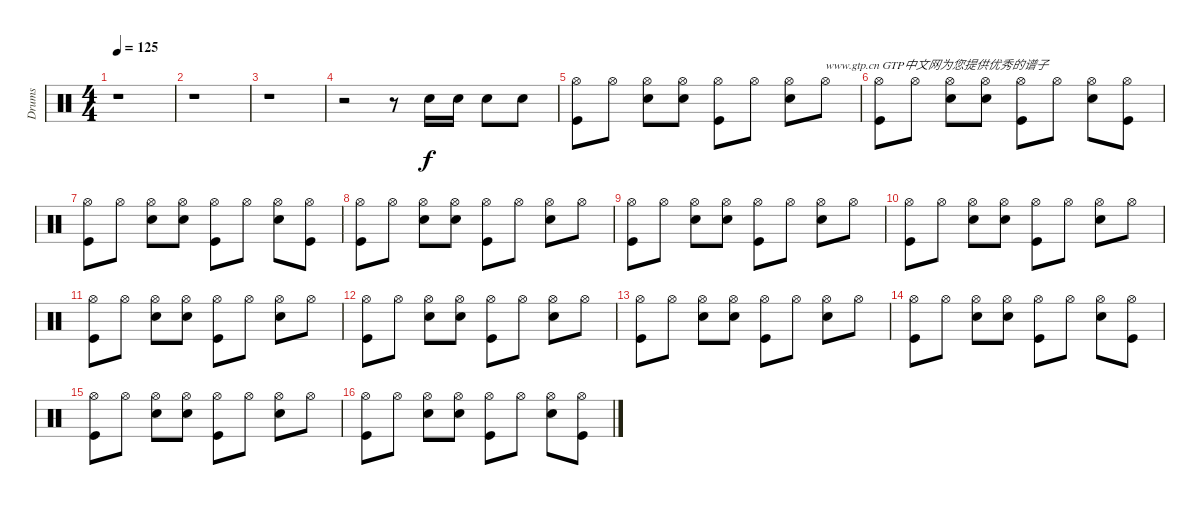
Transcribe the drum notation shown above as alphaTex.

\track ("Drums" "Drums") {instrument percussion}
\staff {score}
\articulation defaults
\ts (4 4)
\tempo 125
\clef neutral
\ks c
r.1{dy f} |
r.1 |
r.1 |
r.2 r.8 "Snare (hit) 2".16 "Snare (hit) 2".16 "Snare (hit) 2".8 "Snare (hit) 2".8 |
("Hi-Hat (open)" "Kick (hit)").8 "Hi-Hat (open)".8 ("Hi-Hat (open)" "Snare (hit) 2").8 ("Hi-Hat (open)" "Snare (hit) 2").8 ("Hi-Hat (open)" "Kick (hit)").8 "Hi-Hat (open)".8 ("Hi-Hat (open)" "Snare (hit) 2").8 "Hi-Hat (open)".8{txt "www.gtp.cn GTP中文网为您提供优秀的谱子"} |
("Kick (hit)" "Hi-Hat (open)").8 "Hi-Hat (open)".8 ("Hi-Hat (open)" "Snare (hit) 2").8 ("Hi-Hat (open)" "Snare (hit) 2").8 ("Hi-Hat (open)" "Kick (hit)").8 "Hi-Hat (open)".8 ("Hi-Hat (open)" "Snare (hit) 2").8 ("Hi-Hat (open)" "Kick (hit)").8 |
("Hi-Hat (open)" "Kick (hit)").8 "Hi-Hat (open)".8 ("Hi-Hat (open)" "Snare (hit) 2").8 ("Hi-Hat (open)" "Snare (hit) 2").8 ("Hi-Hat (open)" "Kick (hit)").8 "Hi-Hat (open)".8 ("Hi-Hat (open)" "Snare (hit) 2").8 ("Hi-Hat (open)" "Kick (hit)").8 |
("Kick (hit)" "Hi-Hat (open)").8 "Hi-Hat (open)".8 ("Hi-Hat (open)" "Snare (hit) 2").8 ("Hi-Hat (open)" "Snare (hit) 2").8 ("Hi-Hat (open)" "Kick (hit)").8 "Hi-Hat (open)".8 ("Hi-Hat (open)" "Snare (hit) 2").8 "Hi-Hat (open)".8 |
("Kick (hit)" "Hi-Hat (open)").8 "Hi-Hat (open)".8 ("Hi-Hat (open)" "Snare (hit) 2").8 ("Hi-Hat (open)" "Snare (hit) 2").8 ("Hi-Hat (open)" "Kick (hit)").8 "Hi-Hat (open)".8 ("Hi-Hat (open)" "Snare (hit) 2").8 "Hi-Hat (open)".8 |
("Kick (hit)" "Hi-Hat (open)").8 "Hi-Hat (open)".8 ("Hi-Hat (open)" "Snare (hit) 2").8 ("Hi-Hat (open)" "Snare (hit) 2").8 ("Hi-Hat (open)" "Kick (hit)").8 "Hi-Hat (open)".8 ("Hi-Hat (open)" "Snare (hit) 2").8 "Hi-Hat (open)".8 |
("Kick (hit)" "Hi-Hat (open)").8 "Hi-Hat (open)".8 ("Hi-Hat (open)" "Snare (hit) 2").8 ("Hi-Hat (open)" "Snare (hit) 2").8 ("Hi-Hat (open)" "Kick (hit)").8 "Hi-Hat (open)".8 ("Hi-Hat (open)" "Snare (hit) 2").8 "Hi-Hat (open)".8 |
("Hi-Hat (open)" "Kick (hit)").8 "Hi-Hat (open)".8 ("Hi-Hat (open)" "Snare (hit) 2").8 ("Hi-Hat (open)" "Snare (hit) 2").8 ("Hi-Hat (open)" "Kick (hit)").8 "Hi-Hat (open)".8 ("Hi-Hat (open)" "Snare (hit) 2").8 "Hi-Hat (open)".8 |
("Kick (hit)" "Hi-Hat (open)").8 "Hi-Hat (open)".8 ("Hi-Hat (open)" "Snare (hit) 2").8 ("Hi-Hat (open)" "Snare (hit) 2").8 ("Hi-Hat (open)" "Kick (hit)").8 "Hi-Hat (open)".8 ("Hi-Hat (open)" "Snare (hit) 2").8 "Hi-Hat (open)".8 |
("Kick (hit)" "Hi-Hat (open)").8 "Hi-Hat (open)".8 ("Hi-Hat (open)" "Snare (hit) 2").8 ("Hi-Hat (open)" "Snare (hit) 2").8 ("Hi-Hat (open)" "Kick (hit)").8 "Hi-Hat (open)".8 ("Hi-Hat (open)" "Snare (hit) 2").8 ("Hi-Hat (open)" "Kick (hit)").8 |
("Kick (hit)" "Hi-Hat (open)").8 "Hi-Hat (open)".8 ("Hi-Hat (open)" "Snare (hit) 2").8 ("Hi-Hat (open)" "Snare (hit) 2").8 ("Hi-Hat (open)" "Kick (hit)").8 "Hi-Hat (open)".8 ("Hi-Hat (open)" "Snare (hit) 2").8 "Hi-Hat (open)".8 |
("Kick (hit)" "Hi-Hat (open)").8 "Hi-Hat (open)".8 ("Hi-Hat (open)" "Snare (hit) 2").8 ("Hi-Hat (open)" "Snare (hit) 2").8 ("Hi-Hat (open)" "Kick (hit)").8 "Hi-Hat (open)".8 ("Hi-Hat (open)" "Snare (hit) 2").8 ("Hi-Hat (open)" "Kick (hit)").8
